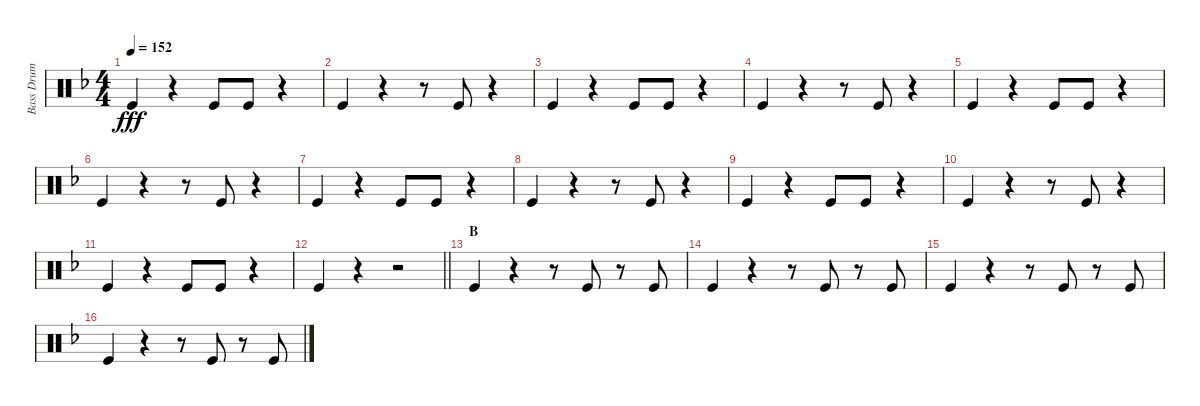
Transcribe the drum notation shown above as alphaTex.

\track ("Bass Drum" "Bass Drum") {instrument percussion}
\staff {score}
\articulation defaults
\ts (4 4)
\tempo 152
\clef neutral
\ks f "Kick (hit)".4{dy fff}
r.4 "Kick (hit)".8 "Kick (hit)".8 r.4 |
"Kick (hit)".4 r.4 r.8 "Kick (hit)".8 r.4 |
"Kick (hit)".4 r.4 "Kick (hit)".8 "Kick (hit)".8 r.4 |
"Kick (hit)".4 r.4 r.8 "Kick (hit)".8 r.4 |
"Kick (hit)".4 r.4 "Kick (hit)".8 "Kick (hit)".8 r.4 |
"Kick (hit)".4 r.4 r.8 "Kick (hit)".8 r.4 |
"Kick (hit)".4 r.4 "Kick (hit)".8 "Kick (hit)".8 r.4 |
"Kick (hit)".4 r.4 r.8 "Kick (hit)".8 r.4 |
"Kick (hit)".4 r.4 "Kick (hit)".8 "Kick (hit)".8 r.4 |
"Kick (hit)".4 r.4 r.8 "Kick (hit)".8 r.4 |
"Kick (hit)".4 r.4 "Kick (hit)".8 "Kick (hit)".8 r.4 |
\barLineRight lightlight "Kick (hit)".4
r.4 r.2 |
\section ("" "B")
"Kick (hit)".4 r.4 r.8 "Kick (hit)".8 r.8 "Kick (hit)".8 |
"Kick (hit)".4 r.4 r.8 "Kick (hit)".8 r.8 "Kick (hit)".8 |
"Kick (hit)".4 r.4 r.8 "Kick (hit)".8 r.8 "Kick (hit)".8 |
"Kick (hit)".4 r.4 r.8 "Kick (hit)".8 r.8 "Kick (hit)".8
